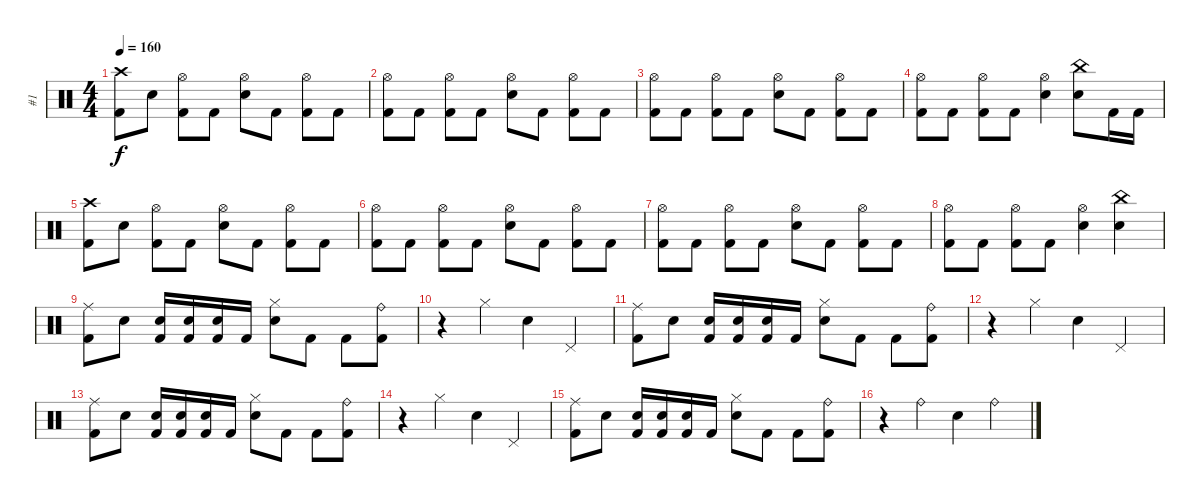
\track ("#1" "#1") {instrument percussion}
\staff {score}
\articulation defaults
\ts (4 4)
\tempo 160
\clef neutral
\ks c
("Kick (hit) 2" "Crash high (hit)").8{dy f} "Electric Snare (hit)".8 ("Kick (hit) 2" "Hi-Hat (open)").8 "Kick (hit) 2".8 ("Electric Snare (hit)" "Hi-Hat (open)").8 "Kick (hit) 2".8 ("Kick (hit) 2" "Hi-Hat (open)").8 "Kick (hit) 2".8 |
("Kick (hit) 2" "Hi-Hat (open)").8 "Kick (hit) 2".8 ("Kick (hit) 2" "Hi-Hat (open)").8 "Kick (hit) 2".8 ("Electric Snare (hit)" "Hi-Hat (open)").8 "Kick (hit) 2".8 ("Kick (hit) 2" "Hi-Hat (open)").8 "Kick (hit) 2".8 |
("Kick (hit) 2" "Hi-Hat (open)").8 "Kick (hit) 2".8 ("Kick (hit) 2" "Hi-Hat (open)").8 "Kick (hit) 2".8 ("Electric Snare (hit)" "Hi-Hat (open)").8 "Kick (hit) 2".8 ("Kick (hit) 2" "Hi-Hat (open)").8 "Kick (hit) 2".8 |
("Kick (hit) 2" "Hi-Hat (open)").8 "Kick (hit) 2".8 ("Kick (hit) 2" "Hi-Hat (open)").8 "Kick (hit) 2".8 ("Electric Snare (hit)" "Hi-Hat (open)").4 ("Electric Snare (hit)" "China (hit)").8 "Kick (hit) 2".16 "Kick (hit) 2".16 |
("Kick (hit) 2" "Crash high (hit)").8 "Electric Snare (hit)".8 ("Kick (hit) 2" "Hi-Hat (open)").8 "Kick (hit) 2".8 ("Electric Snare (hit)" "Hi-Hat (open)").8 "Kick (hit) 2".8 ("Kick (hit) 2" "Hi-Hat (open)").8 "Kick (hit) 2".8 |
("Kick (hit) 2" "Hi-Hat (open)").8 "Kick (hit) 2".8 ("Kick (hit) 2" "Hi-Hat (open)").8 "Kick (hit) 2".8 ("Electric Snare (hit)" "Hi-Hat (open)").8 "Kick (hit) 2".8 ("Kick (hit) 2" "Hi-Hat (open)").8 "Kick (hit) 2".8 |
("Kick (hit) 2" "Hi-Hat (open)").8 "Kick (hit) 2".8 ("Kick (hit) 2" "Hi-Hat (open)").8 "Kick (hit) 2".8 ("Electric Snare (hit)" "Hi-Hat (open)").8 "Kick (hit) 2".8 ("Kick (hit) 2" "Hi-Hat (open)").8 "Kick (hit) 2".8 |
("Kick (hit) 2" "Hi-Hat (open)").8 "Kick (hit) 2".8 ("Kick (hit) 2" "Hi-Hat (open)").8 "Kick (hit) 2".8 ("Electric Snare (hit)" "Hi-Hat (open)").4 ("Electric Snare (hit)" "China (hit)").4 |
("Kick (hit) 2" "Ride (middle)").8 "Electric Snare (hit)".8 ("Kick (hit) 2" "Electric Snare (hit)").16 ("Kick (hit) 2" "Electric Snare (hit)").16 ("Kick (hit) 2" "Electric Snare (hit)").16 "Kick (hit) 2".16 ("Electric Snare (hit)" "Hi-Hat (closed)").8 "Kick (hit) 2".8 "Kick (hit) 2".8 ("Kick (hit) 2" "Ride (bell)").8 |
r.4 "Hi-Hat (closed)".4 "Electric Snare (hit)".4 "Pedal Hi-Hat (hit)".4 |
("Kick (hit) 2" "Ride (middle)").8 "Electric Snare (hit)".8 ("Kick (hit) 2" "Electric Snare (hit)").16 ("Kick (hit) 2" "Electric Snare (hit)").16 ("Kick (hit) 2" "Electric Snare (hit)").16 "Kick (hit) 2".16 ("Electric Snare (hit)" "Hi-Hat (closed)").8 "Kick (hit) 2".8 "Kick (hit) 2".8 ("Kick (hit) 2" "Ride (bell)").8 |
r.4 "Hi-Hat (closed)".4 "Electric Snare (hit)".4 "Pedal Hi-Hat (hit)".4 |
("Kick (hit) 2" "Ride (middle)").8 "Electric Snare (hit)".8 ("Kick (hit) 2" "Electric Snare (hit)").16 ("Kick (hit) 2" "Electric Snare (hit)").16 ("Kick (hit) 2" "Electric Snare (hit)").16 "Kick (hit) 2".16 ("Electric Snare (hit)" "Hi-Hat (closed)").8 "Kick (hit) 2".8 "Kick (hit) 2".8 ("Kick (hit) 2" "Ride (bell)").8 |
r.4 "Hi-Hat (closed)".4 "Electric Snare (hit)".4 "Pedal Hi-Hat (hit)".4 |
("Kick (hit) 2" "Ride (middle)").8 "Electric Snare (hit)".8 ("Kick (hit) 2" "Electric Snare (hit)").16 ("Kick (hit) 2" "Electric Snare (hit)").16 ("Kick (hit) 2" "Electric Snare (hit)").16 "Kick (hit) 2".16 ("Electric Snare (hit)" "Hi-Hat (closed)").8 "Kick (hit) 2".8 "Kick (hit) 2".8 ("Kick (hit) 2" "Ride (bell)").8 |
r.4 "Ride (bell)".4 "Electric Snare (hit)".4 "Ride (bell)".4
